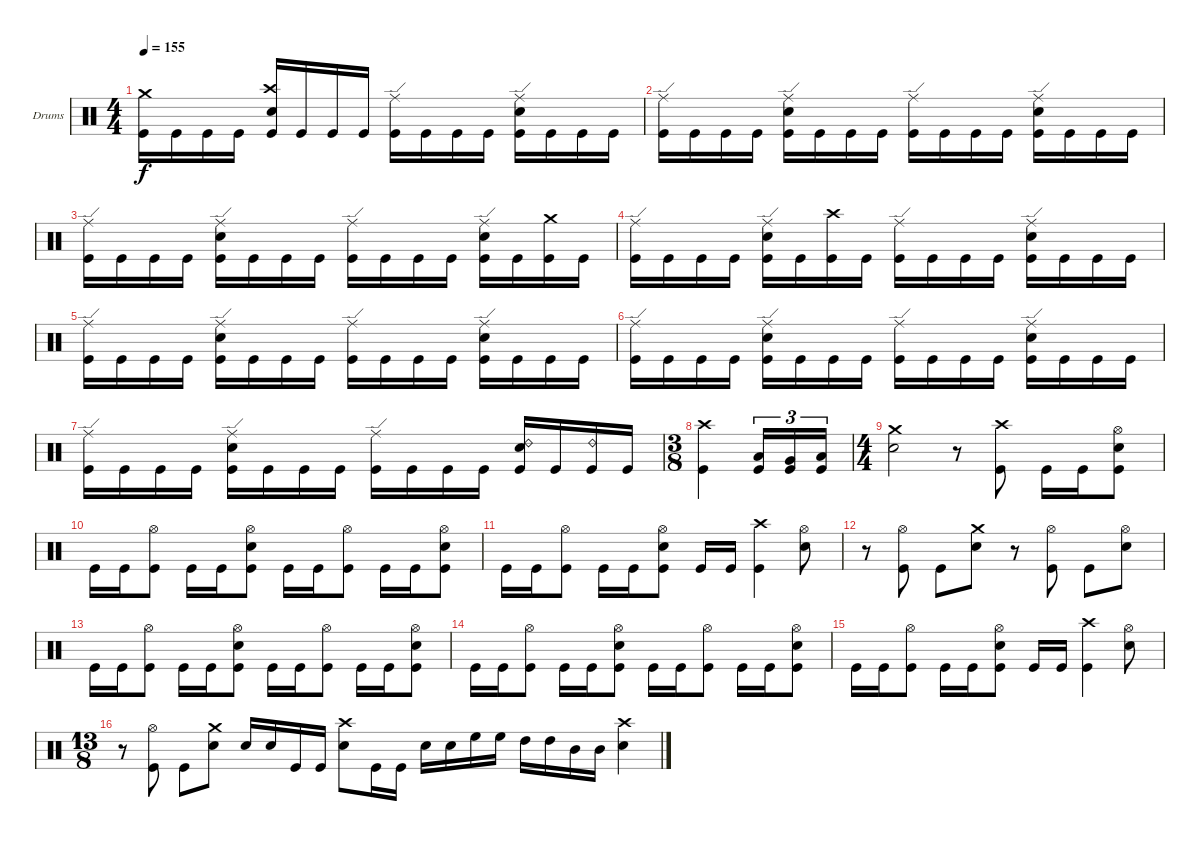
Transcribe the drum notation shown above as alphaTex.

\defaultSystemsLayout 4
\bracketExtendMode groupsimilarinstruments
\firstSystemTrackNameOrientation horizontal
\otherSystemsTrackNameOrientation horizontal
\track ("Drumkit" "Drums") {instrument percussion}
\staff {score}
\articulation defaults
\ts (4 4)
\tempo 155
\clef neutral
\scale
0.333333
\ks c
("Crash medium (hit)" "Kick (hit)").16{dy f} "Kick (hit)".16 "Kick (hit)".16 "Kick (hit)".16 ("Crash high (hit)" "Snare (hit) 2" "Kick (hit)").16 "Kick (hit)".16 "Kick (hit)".16 "Kick (hit)".16 ("Ride (edge)" "Kick (hit)").16 "Kick (hit)".16 "Kick (hit)".16 "Kick (hit)".16 ("Ride (edge)" "Snare (hit) 2" "Kick (hit)").16 "Kick (hit)".16 "Kick (hit)".16 "Kick (hit)".16 |
\scale
0.333333 ("Ride (edge)" "Kick (hit)").16 "Kick (hit)".16 "Kick (hit)".16 "Kick (hit)".16 ("Ride (edge)" "Snare (hit) 2" "Kick (hit)").16 "Kick (hit)".16 "Kick (hit)".16 "Kick (hit)".16 ("Ride (edge)" "Kick (hit)").16 "Kick (hit)".16 "Kick (hit)".16 "Kick (hit)".16 ("Ride (edge)" "Snare (hit) 2" "Kick (hit)").16 "Kick (hit)".16 "Kick (hit)".16 "Kick (hit)".16 |
\scale
0.333333 ("Ride (edge)" "Kick (hit)").16 "Kick (hit)".16 "Kick (hit)".16 "Kick (hit)".16 ("Ride (edge)" "Snare (hit) 2" "Kick (hit)").16 "Kick (hit)".16 "Kick (hit)".16 "Kick (hit)".16 ("Ride (edge)" "Kick (hit)").16 "Kick (hit)".16 "Kick (hit)".16 "Kick (hit)".16 ("Ride (edge)" "Snare (hit) 2" "Kick (hit)").16 "Kick (hit)".16 ("Crash medium (hit)" "Kick (hit)").16 "Kick (hit)".16 |
\scale
0.333333 ("Ride (edge)" "Kick (hit)").16 "Kick (hit)".16 "Kick (hit)".16 "Kick (hit)".16 ("Ride (edge)" "Snare (hit) 2" "Kick (hit)").16 "Kick (hit)".16 ("Crash high (hit)" "Kick (hit)").16 "Kick (hit)".16 ("Ride (edge)" "Kick (hit)").16 "Kick (hit)".16 "Kick (hit)".16 "Kick (hit)".16 ("Ride (edge)" "Snare (hit) 2" "Kick (hit)").16 "Kick (hit)".16 "Kick (hit)".16 "Kick (hit)".16 |
\scale
0.333333 ("Ride (edge)" "Kick (hit)").16 "Kick (hit)".16 "Kick (hit)".16 "Kick (hit)".16 ("Ride (edge)" "Snare (hit) 2" "Kick (hit)").16 "Kick (hit)".16 "Kick (hit)".16 "Kick (hit)".16 ("Ride (edge)" "Kick (hit)").16 "Kick (hit)".16 "Kick (hit)".16 "Kick (hit)".16 ("Ride (edge)" "Snare (hit) 2" "Kick (hit)").16 "Kick (hit)".16 "Kick (hit)".16 "Kick (hit)".16 |
\scale
0.333333 ("Ride (edge)" "Kick (hit)").16 "Kick (hit)".16 "Kick (hit)".16 "Kick (hit)".16 ("Ride (edge)" "Snare (hit) 2" "Kick (hit)").16 "Kick (hit)".16 "Kick (hit)".16 "Kick (hit)".16 ("Ride (edge)" "Kick (hit)").16 "Kick (hit)".16 "Kick (hit)".16 "Kick (hit)".16 ("Ride (edge)" "Snare (hit) 2" "Kick (hit)").16 "Kick (hit)".16 "Kick (hit)".16 "Kick (hit)".16 |
\scale
0.333333 ("Ride (edge)" "Kick (hit)").16 "Kick (hit)".16 "Kick (hit)".16 "Kick (hit)".16 ("Ride (edge)" "Snare (hit) 2" "Kick (hit)").16 "Kick (hit)".16 "Kick (hit)".16 "Kick (hit)".16 ("Ride (edge)" "Kick (hit)").16 "Kick (hit)".16 "Kick (hit)".16 "Kick (hit)".16 ("Ride (bell) 2" "Snare (hit) 2" "Kick (hit)").16 "Kick (hit)".16 ("Ride (bell) 2" "Kick (hit)").16 "Kick (hit)".16 |
\ts (3 8)
\scale
0.333333 ("Crash high (hit)" "Kick (hit)").4 ("Low Tom (hit)" "Kick (hit)").16{tu (3 2)} ("Very Low Tom (hit)" "Kick (hit)").16{tu (3 2)} ("Low Tom (hit)" "Kick (hit)").16{tu (3 2)} |
\ts (4 4)
\scale
0.333333 ("Crash medium (hit)" "Snare (hit) 2").2 r.8 ("Crash high (hit)" "Kick (hit)").8 "Kick (hit)".16 "Kick (hit)".16 ("Hi-Hat (open)" "Snare (hit) 2" "Kick (hit)").8 |
\scale
0.333333 "Kick (hit)".16 "Kick (hit)".16 ("Hi-Hat (open)" "Kick (hit)").8 "Kick (hit)".16 "Kick (hit)".16 ("Hi-Hat (open)" "Snare (hit) 2" "Kick (hit)").8 "Kick (hit)".16 "Kick (hit)".16 ("Hi-Hat (open)" "Kick (hit)").8 "Kick (hit)".16 "Kick (hit)".16 ("Hi-Hat (open)" "Snare (hit) 2" "Kick (hit)").8 |
\scale
0.333333 "Kick (hit)".16 "Kick (hit)".16 ("Hi-Hat (open)" "Kick (hit)").8 "Kick (hit)".16 "Kick (hit)".16 ("Hi-Hat (open)" "Snare (hit) 2" "Kick (hit)").8 "Kick (hit)".16 "Kick (hit)".16 ("Crash high (hit)" "Kick (hit)").4 ("Hi-Hat (open)" "Snare (hit) 2").8 |
\scale
0.333333 r.8 ("Hi-Hat (open)" "Kick (hit)").8 "Kick (hit)".8 ("Crash medium (hit)" "Snare (hit) 2").8 r.8 ("Hi-Hat (open)" "Kick (hit)").8 "Kick (hit)".8 ("Hi-Hat (open)" "Snare (hit) 2").8 |
\scale
0.333333 "Kick (hit)".16 "Kick (hit)".16 ("Hi-Hat (open)" "Kick (hit)").8 "Kick (hit)".16 "Kick (hit)".16 ("Hi-Hat (open)" "Snare (hit) 2" "Kick (hit)").8 "Kick (hit)".16 "Kick (hit)".16 ("Hi-Hat (open)" "Kick (hit)").8 "Kick (hit)".16 "Kick (hit)".16 ("Hi-Hat (open)" "Snare (hit) 2" "Kick (hit)").8 |
\scale
0.333333 "Kick (hit)".16 "Kick (hit)".16 ("Hi-Hat (open)" "Kick (hit)").8 "Kick (hit)".16 "Kick (hit)".16 ("Hi-Hat (open)" "Snare (hit) 2" "Kick (hit)").8 "Kick (hit)".16 "Kick (hit)".16 ("Hi-Hat (open)" "Kick (hit)").8 "Kick (hit)".16 "Kick (hit)".16 ("Hi-Hat (open)" "Snare (hit) 2" "Kick (hit)").8 |
\scale
0.333333 "Kick (hit)".16 "Kick (hit)".16 ("Hi-Hat (open)" "Kick (hit)").8 "Kick (hit)".16 "Kick (hit)".16 ("Hi-Hat (open)" "Snare (hit) 2" "Kick (hit)").8 "Kick (hit)".16 "Kick (hit)".16 ("Crash high (hit)" "Kick (hit)").4 ("Hi-Hat (open)" "Snare (hit) 2").8 |
\ts (13 8)
\scale
0.333333 r.8 ("Hi-Hat (open)" "Kick (hit)").8 "Kick (hit)".8 ("Crash medium (hit)" "Snare (hit) 2").8 "Snare (hit) 2".16 "Snare (hit) 2".16 "Kick (hit)".16 "Kick (hit)".16 ("Crash high (hit)" "Snare (hit) 2").8 "Kick (hit)".16 "Kick (hit)".16 "Snare (hit) 2".16 "Snare (hit) 2".16 "High Floor Tom (hit)".16 "High Floor Tom (hit)".16 "High Tom (hit)".16 "High Tom (hit)".16 "Mid Tom (hit)".16 "Mid Tom (hit)".16 ("Crash high (hit)" "Snare (hit) 2").4
